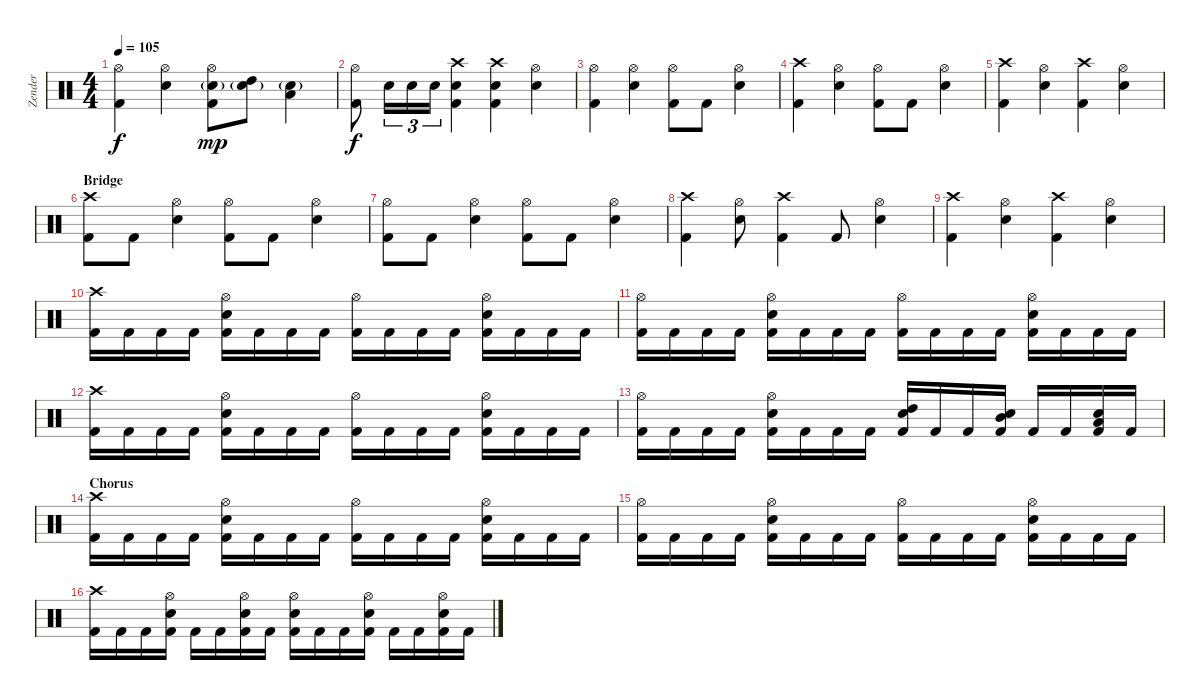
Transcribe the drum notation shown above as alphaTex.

\track ("Zender" "Zender") {instrument percussion}
\staff {score}
\articulation defaults
\ts (4 4)
\tempo 105
\clef neutral
\ks c
("Hi-Hat (open)" "Kick (hit) 2").4{dy f} ("Electric Snare (hit)" "Hi-Hat (open)").4 ("Hi-Hat (open)" "Electric Snare (hit)"{g} "Kick (hit) 2").8{dy mp} ("High Tom (hit)" "Electric Snare (hit)"{g}).8 ("Low Tom (hit)" "Electric Snare (hit)"{g}).4 |
("Hi-Hat (open)" "Kick (hit) 2").8{dy f} "Electric Snare (hit)".16{tu (3 2)} "Electric Snare (hit)".16{tu (3 2)} "Electric Snare (hit)".16{tu (3 2)} ("Crash high (hit)" "Electric Snare (hit)" "Kick (hit) 2").4 ("Crash high (hit)" "Electric Snare (hit)" "Kick (hit) 2").4 ("Electric Snare (hit)" "Hi-Hat (open)").4 |
("Hi-Hat (open)" "Kick (hit) 2").4 ("Hi-Hat (open)" "Electric Snare (hit)").4 ("Hi-Hat (open)" "Kick (hit) 2").8 "Kick (hit) 2".8 ("Hi-Hat (open)" "Electric Snare (hit)").4 |
("Crash high (hit)" "Kick (hit) 2").4 ("Hi-Hat (open)" "Electric Snare (hit)").4 ("Hi-Hat (open)" "Kick (hit) 2").8 "Kick (hit) 2".8 ("Hi-Hat (open)" "Electric Snare (hit)").4 |
("Crash high (hit)" "Kick (hit) 2").4 ("Hi-Hat (open)" "Electric Snare (hit)").4 ("Crash high (hit)" "Kick (hit) 2").4 ("Hi-Hat (open)" "Electric Snare (hit)").4 |
\section ("" "Bridge")
("Crash high (hit)" "Kick (hit) 2").8 "Kick (hit) 2".8 ("Hi-Hat (open)" "Electric Snare (hit)").4 ("Hi-Hat (open)" "Kick (hit) 2").8 "Kick (hit) 2".8 ("Hi-Hat (open)" "Electric Snare (hit)").4 |
("Hi-Hat (open)" "Kick (hit) 2").8 "Kick (hit) 2".8 ("Hi-Hat (open)" "Electric Snare (hit)").4 ("Hi-Hat (open)" "Kick (hit) 2").8 "Kick (hit) 2".8 ("Hi-Hat (open)" "Electric Snare (hit)").4 |
("Crash high (hit)" "Kick (hit) 2").4 ("Hi-Hat (open)" "Electric Snare (hit)").8 ("Crash high (hit)" "Kick (hit) 2").4 "Kick (hit) 2".8 ("Hi-Hat (open)" "Electric Snare (hit)").4 |
("Crash high (hit)" "Kick (hit) 2").4 ("Hi-Hat (open)" "Electric Snare (hit)").4 ("Crash high (hit)" "Kick (hit) 2").4 ("Hi-Hat (open)" "Electric Snare (hit)").4 |
("Crash high (hit)" "Kick (hit) 2").16 "Kick (hit) 2".16 "Kick (hit) 2".16 "Kick (hit) 2".16 ("Hi-Hat (open)" "Electric Snare (hit)" "Kick (hit) 2").16 "Kick (hit) 2".16 "Kick (hit) 2".16 "Kick (hit) 2".16 ("Hi-Hat (open)" "Kick (hit) 2").16 "Kick (hit) 2".16 "Kick (hit) 2".16 "Kick (hit) 2".16 ("Hi-Hat (open)" "Electric Snare (hit)" "Kick (hit) 2").16 "Kick (hit) 2".16 "Kick (hit) 2".16 "Kick (hit) 2".16 |
("Hi-Hat (open)" "Kick (hit) 2").16 "Kick (hit) 2".16 "Kick (hit) 2".16 "Kick (hit) 2".16 ("Hi-Hat (open)" "Electric Snare (hit)" "Kick (hit) 2").16 "Kick (hit) 2".16 "Kick (hit) 2".16 "Kick (hit) 2".16 ("Hi-Hat (open)" "Kick (hit) 2").16 "Kick (hit) 2".16 "Kick (hit) 2".16 "Kick (hit) 2".16 ("Hi-Hat (open)" "Electric Snare (hit)" "Kick (hit) 2").16 "Kick (hit) 2".16 "Kick (hit) 2".16 "Kick (hit) 2".16 |
("Crash high (hit)" "Kick (hit) 2").16 "Kick (hit) 2".16 "Kick (hit) 2".16 "Kick (hit) 2".16 ("Hi-Hat (open)" "Electric Snare (hit)" "Kick (hit) 2").16 "Kick (hit) 2".16 "Kick (hit) 2".16 "Kick (hit) 2".16 ("Hi-Hat (open)" "Kick (hit) 2").16 "Kick (hit) 2".16 "Kick (hit) 2".16 "Kick (hit) 2".16 ("Hi-Hat (open)" "Electric Snare (hit)" "Kick (hit) 2").16 "Kick (hit) 2".16 "Kick (hit) 2".16 "Kick (hit) 2".16 |
("Hi-Hat (open)" "Kick (hit) 2").16 "Kick (hit) 2".16 "Kick (hit) 2".16 "Kick (hit) 2".16 ("Hi-Hat (open)" "Electric Snare (hit)" "Kick (hit) 2").16 "Kick (hit) 2".16 "Kick (hit) 2".16 "Kick (hit) 2".16 ("Electric Snare (hit)" "High Tom (hit)" "Kick (hit) 2").16 "Kick (hit) 2".16 "Kick (hit) 2".16 ("Electric Snare (hit)" "Mid Tom (hit)" "Kick (hit) 2").16 "Kick (hit) 2".16 "Kick (hit) 2".16 ("Electric Snare (hit)" "Low Tom (hit)" "Kick (hit) 2").16 "Kick (hit) 2".16 |
\section ("" "Chorus")
("Crash high (hit)" "Kick (hit) 2").16 "Kick (hit) 2".16 "Kick (hit) 2".16 "Kick (hit) 2".16 ("Hi-Hat (open)" "Electric Snare (hit)" "Kick (hit) 2").16 "Kick (hit) 2".16 "Kick (hit) 2".16 "Kick (hit) 2".16 ("Hi-Hat (open)" "Kick (hit) 2").16 "Kick (hit) 2".16 "Kick (hit) 2".16 "Kick (hit) 2".16 ("Hi-Hat (open)" "Electric Snare (hit)" "Kick (hit) 2").16 "Kick (hit) 2".16 "Kick (hit) 2".16 "Kick (hit) 2".16 |
("Hi-Hat (open)" "Kick (hit) 2").16 "Kick (hit) 2".16 "Kick (hit) 2".16 "Kick (hit) 2".16 ("Hi-Hat (open)" "Electric Snare (hit)" "Kick (hit) 2").16 "Kick (hit) 2".16 "Kick (hit) 2".16 "Kick (hit) 2".16 ("Hi-Hat (open)" "Kick (hit) 2").16 "Kick (hit) 2".16 "Kick (hit) 2".16 "Kick (hit) 2".16 ("Hi-Hat (open)" "Electric Snare (hit)" "Kick (hit) 2").16 "Kick (hit) 2".16 "Kick (hit) 2".16 "Kick (hit) 2".16 |
("Crash high (hit)" "Kick (hit) 2").16 "Kick (hit) 2".16 "Kick (hit) 2".16 ("Hi-Hat (open)" "Electric Snare (hit)" "Kick (hit) 2").16 "Kick (hit) 2".16 "Kick (hit) 2".16 ("Hi-Hat (open)" "Electric Snare (hit)" "Kick (hit) 2").16 "Kick (hit) 2".16 ("Hi-Hat (open)" "Electric Snare (hit)" "Kick (hit) 2").16 "Kick (hit) 2".16 "Kick (hit) 2".16 ("Hi-Hat (open)" "Electric Snare (hit)" "Kick (hit) 2").16 "Kick (hit) 2".16 "Kick (hit) 2".16 ("Hi-Hat (open)" "Electric Snare (hit)" "Kick (hit) 2").16 "Kick (hit) 2".16
